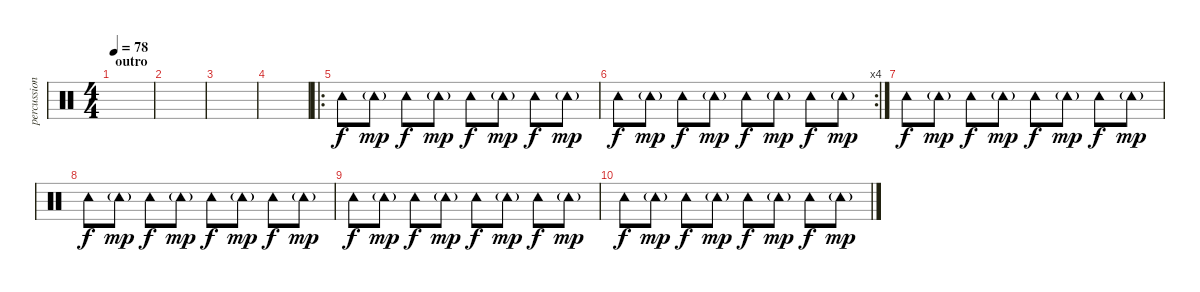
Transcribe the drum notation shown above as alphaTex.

\track ("percussion" "percussion") {instrument percussion}
\staff {score}
\articulation defaults
\ts (4 4)
\section ("" "outro")
\tempo 78
\clef neutral
\ks c
|
|
|
|
\ro "Tambourine (hit)".8{dy f} "Tambourine (hit)"{g}.8{dy mp} "Tambourine (hit)".8{dy f} "Tambourine (hit)"{g}.8{dy mp} "Tambourine (hit)".8{dy f} "Tambourine (hit)"{g}.8{dy mp} "Tambourine (hit)".8{dy f} "Tambourine (hit)"{g}.8{dy mp}
|
\rc 4 "Tambourine (hit)".8{dy f} "Tambourine (hit)"{g}.8{dy mp} "Tambourine (hit)".8{dy f} "Tambourine (hit)"{g}.8{dy mp} "Tambourine (hit)".8{dy f} "Tambourine (hit)"{g}.8{dy mp} "Tambourine (hit)".8{dy f} "Tambourine (hit)"{g}.8{dy mp}
|
"Tambourine (hit)".8{dy f} "Tambourine (hit)"{g}.8{dy mp} "Tambourine (hit)".8{dy f} "Tambourine (hit)"{g}.8{dy mp} "Tambourine (hit)".8{dy f} "Tambourine (hit)"{g}.8{dy mp} "Tambourine (hit)".8{dy f} "Tambourine (hit)"{g}.8{dy mp} |
"Tambourine (hit)".8{dy f} "Tambourine (hit)"{g}.8{dy mp} "Tambourine (hit)".8{dy f} "Tambourine (hit)"{g}.8{dy mp} "Tambourine (hit)".8{dy f} "Tambourine (hit)"{g}.8{dy mp} "Tambourine (hit)".8{dy f} "Tambourine (hit)"{g}.8{dy mp} |
"Tambourine (hit)".8{dy f} "Tambourine (hit)"{g}.8{dy mp} "Tambourine (hit)".8{dy f} "Tambourine (hit)"{g}.8{dy mp} "Tambourine (hit)".8{dy f} "Tambourine (hit)"{g}.8{dy mp} "Tambourine (hit)".8{dy f} "Tambourine (hit)"{g}.8{dy mp} |
"Tambourine (hit)".8{dy f} "Tambourine (hit)"{g}.8{dy mp} "Tambourine (hit)".8{dy f} "Tambourine (hit)"{g}.8{dy mp} "Tambourine (hit)".8{dy f} "Tambourine (hit)"{g}.8{dy mp} "Tambourine (hit)".8{dy f} "Tambourine (hit)"{g}.8{dy mp}
